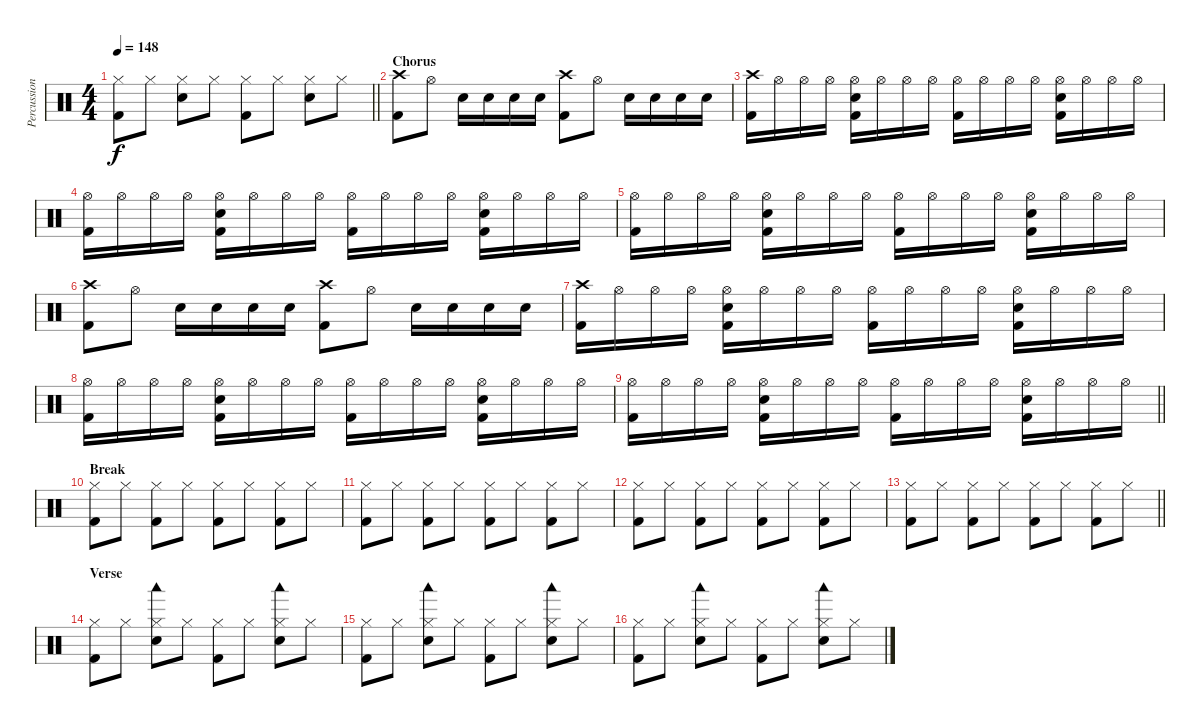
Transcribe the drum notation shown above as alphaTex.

\track ("Percussion" "Percussion") {instrument percussion}
\staff {score}
\articulation defaults
\ts (4 4)
\tempo 148
\clef neutral
\barLineRight lightlight
\ks c
("Hi-Hat (closed)" "Kick (hit) 2").8{dy f} "Hi-Hat (closed)".8 ("Hi-Hat (closed)" "Electric Snare (hit)").8 "Hi-Hat (closed)".8 ("Hi-Hat (closed)" "Kick (hit) 2").8 "Hi-Hat (closed)".8 ("Hi-Hat (closed)" "Electric Snare (hit)").8 "Hi-Hat (closed)".8 |
\section ("" "Chorus")
("Crash high (hit)" "Kick (hit) 2").8 "Hi-Hat (open)".8 "Electric Snare (hit)".16 "Electric Snare (hit)".16 "Electric Snare (hit)".16 "Electric Snare (hit)".16 ("Crash high (hit)" "Kick (hit) 2").8 "Hi-Hat (open)".8 "Electric Snare (hit)".16 "Electric Snare (hit)".16 "Electric Snare (hit)".16 "Electric Snare (hit)".16 |
("Crash high (hit)" "Kick (hit) 2").16 "Hi-Hat (open)".16 "Hi-Hat (open)".16 "Hi-Hat (open)".16 ("Hi-Hat (open)" "Electric Snare (hit)" "Kick (hit) 2").16 "Hi-Hat (open)".16 "Hi-Hat (open)".16 "Hi-Hat (open)".16 ("Hi-Hat (open)" "Kick (hit) 2").16 "Hi-Hat (open)".16 "Hi-Hat (open)".16 "Hi-Hat (open)".16 ("Hi-Hat (open)" "Electric Snare (hit)" "Kick (hit) 2").16 "Hi-Hat (open)".16 "Hi-Hat (open)".16 "Hi-Hat (open)".16 |
("Hi-Hat (open)" "Kick (hit) 2").16 "Hi-Hat (open)".16 "Hi-Hat (open)".16 "Hi-Hat (open)".16 ("Hi-Hat (open)" "Electric Snare (hit)" "Kick (hit) 2").16 "Hi-Hat (open)".16 "Hi-Hat (open)".16 "Hi-Hat (open)".16 ("Hi-Hat (open)" "Kick (hit) 2").16 "Hi-Hat (open)".16 "Hi-Hat (open)".16 "Hi-Hat (open)".16 ("Hi-Hat (open)" "Electric Snare (hit)" "Kick (hit) 2").16 "Hi-Hat (open)".16 "Hi-Hat (open)".16 "Hi-Hat (open)".16 |
("Hi-Hat (open)" "Kick (hit) 2").16 "Hi-Hat (open)".16 "Hi-Hat (open)".16 "Hi-Hat (open)".16 ("Hi-Hat (open)" "Electric Snare (hit)" "Kick (hit) 2").16 "Hi-Hat (open)".16 "Hi-Hat (open)".16 "Hi-Hat (open)".16 ("Hi-Hat (open)" "Kick (hit) 2").16 "Hi-Hat (open)".16 "Hi-Hat (open)".16 "Hi-Hat (open)".16 ("Hi-Hat (open)" "Electric Snare (hit)" "Kick (hit) 2").16 "Hi-Hat (open)".16 "Hi-Hat (open)".16 "Hi-Hat (open)".16 |
("Crash high (hit)" "Kick (hit) 2").8 "Hi-Hat (open)".8 "Electric Snare (hit)".16 "Electric Snare (hit)".16 "Electric Snare (hit)".16 "Electric Snare (hit)".16 ("Crash high (hit)" "Kick (hit) 2").8 "Hi-Hat (open)".8 "Electric Snare (hit)".16 "Electric Snare (hit)".16 "Electric Snare (hit)".16 "Electric Snare (hit)".16 |
("Crash high (hit)" "Kick (hit) 2").16 "Hi-Hat (open)".16 "Hi-Hat (open)".16 "Hi-Hat (open)".16 ("Hi-Hat (open)" "Electric Snare (hit)" "Kick (hit) 2").16 "Hi-Hat (open)".16 "Hi-Hat (open)".16 "Hi-Hat (open)".16 ("Hi-Hat (open)" "Kick (hit) 2").16 "Hi-Hat (open)".16 "Hi-Hat (open)".16 "Hi-Hat (open)".16 ("Hi-Hat (open)" "Electric Snare (hit)" "Kick (hit) 2").16 "Hi-Hat (open)".16 "Hi-Hat (open)".16 "Hi-Hat (open)".16 |
("Hi-Hat (open)" "Kick (hit) 2").16 "Hi-Hat (open)".16 "Hi-Hat (open)".16 "Hi-Hat (open)".16 ("Hi-Hat (open)" "Electric Snare (hit)" "Kick (hit) 2").16 "Hi-Hat (open)".16 "Hi-Hat (open)".16 "Hi-Hat (open)".16 ("Hi-Hat (open)" "Kick (hit) 2").16 "Hi-Hat (open)".16 "Hi-Hat (open)".16 "Hi-Hat (open)".16 ("Hi-Hat (open)" "Electric Snare (hit)" "Kick (hit) 2").16 "Hi-Hat (open)".16 "Hi-Hat (open)".16 "Hi-Hat (open)".16 |
\barLineRight lightlight
("Hi-Hat (open)" "Kick (hit) 2").16 "Hi-Hat (open)".16 "Hi-Hat (open)".16 "Hi-Hat (open)".16 ("Hi-Hat (open)" "Electric Snare (hit)" "Kick (hit) 2").16 "Hi-Hat (open)".16 "Hi-Hat (open)".16 "Hi-Hat (open)".16 ("Hi-Hat (open)" "Kick (hit) 2").16 "Hi-Hat (open)".16 "Hi-Hat (open)".16 "Hi-Hat (open)".16 ("Hi-Hat (open)" "Electric Snare (hit)" "Kick (hit) 2").16 "Hi-Hat (open)".16 "Hi-Hat (open)".16 "Hi-Hat (open)".16 |
\section ("" "Break")
("Hi-Hat (closed)" "Kick (hit) 2").8 "Hi-Hat (closed)".8 ("Hi-Hat (closed)" "Kick (hit) 2").8 "Hi-Hat (closed)".8 ("Hi-Hat (closed)" "Kick (hit) 2").8 "Hi-Hat (closed)".8 ("Hi-Hat (closed)" "Kick (hit) 2").8 "Hi-Hat (closed)".8 |
("Hi-Hat (closed)" "Kick (hit) 2").8 "Hi-Hat (closed)".8 ("Hi-Hat (closed)" "Kick (hit) 2").8 "Hi-Hat (closed)".8 ("Hi-Hat (closed)" "Kick (hit) 2").8 "Hi-Hat (closed)".8 ("Hi-Hat (closed)" "Kick (hit) 2").8 "Hi-Hat (closed)".8 |
("Hi-Hat (closed)" "Kick (hit) 2").8 "Hi-Hat (closed)".8 ("Hi-Hat (closed)" "Kick (hit) 2").8 "Hi-Hat (closed)".8 ("Hi-Hat (closed)" "Kick (hit) 2").8 "Hi-Hat (closed)".8 ("Hi-Hat (closed)" "Kick (hit) 2").8 "Hi-Hat (closed)".8 |
\barLineRight lightlight
("Hi-Hat (closed)" "Kick (hit) 2").8 "Hi-Hat (closed)".8 ("Hi-Hat (closed)" "Kick (hit) 2").8 "Hi-Hat (closed)".8 ("Hi-Hat (closed)" "Kick (hit) 2").8 "Hi-Hat (closed)".8 ("Hi-Hat (closed)" "Kick (hit) 2").8 "Hi-Hat (closed)".8 |
\section ("" "Verse")
("Hi-Hat (closed)" "Kick (hit) 2").8 "Hi-Hat (closed)".8 ("Hi-Hat (closed)" "Woodblock low (hit)" "Electric Snare (hit)").8 "Hi-Hat (closed)".8 ("Hi-Hat (closed)" "Kick (hit) 2").8 "Hi-Hat (closed)".8 ("Hi-Hat (closed)" "Woodblock low (hit)" "Electric Snare (hit)").8 "Hi-Hat (closed)".8 |
("Hi-Hat (closed)" "Kick (hit) 2").8 "Hi-Hat (closed)".8 ("Hi-Hat (closed)" "Woodblock low (hit)" "Electric Snare (hit)").8 "Hi-Hat (closed)".8 ("Hi-Hat (closed)" "Kick (hit) 2").8 "Hi-Hat (closed)".8 ("Hi-Hat (closed)" "Woodblock low (hit)" "Electric Snare (hit)").8 "Hi-Hat (closed)".8 |
("Hi-Hat (closed)" "Kick (hit) 2").8 "Hi-Hat (closed)".8 ("Hi-Hat (closed)" "Woodblock low (hit)" "Electric Snare (hit)").8 "Hi-Hat (closed)".8 ("Hi-Hat (closed)" "Kick (hit) 2").8 "Hi-Hat (closed)".8 ("Hi-Hat (closed)" "Woodblock low (hit)" "Electric Snare (hit)").8 "Hi-Hat (closed)".8
